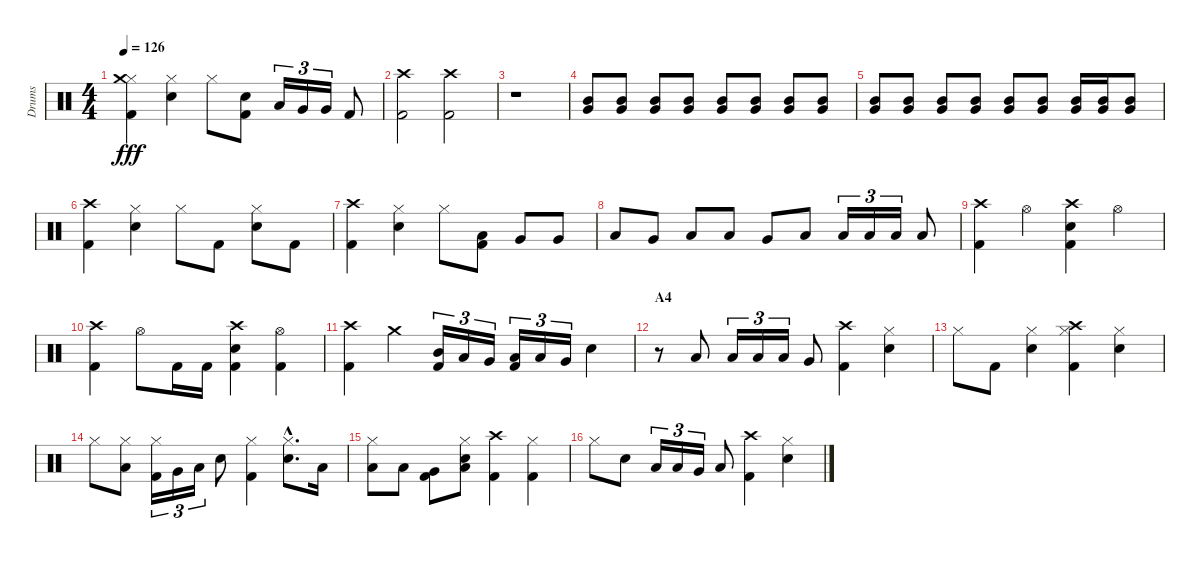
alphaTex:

\track ("Drums" "Drums") {instrument percussion}
\staff {score}
\articulation defaults
\ts (4 4)
\tempo 126
\clef neutral
\ks c
("Hi-Hat (closed)" "Crash medium (hit)" "Kick (hit) 2").4{dy fff} ("Hi-Hat (closed)" "Snare (hit) 2").4 "Hi-Hat (closed)".8 ("Snare (hit) 2" "Kick (hit) 2").8 "Low Tom (hit)".16{tu (3 2)} "Very Low Tom (hit)".16{tu (3 2)} "Very Low Tom (hit)".16{tu (3 2)} "Kick (hit) 2".8 |
("Crash high (hit)" "Kick (hit) 2").2 ("Crash high (hit)" "Kick (hit) 2").2 |
r.1 |
("Mid Tom (hit)" "Very Low Tom (hit)").8 ("Mid Tom (hit)" "Very Low Tom (hit)").8 ("Mid Tom (hit)" "Very Low Tom (hit)").8 ("Mid Tom (hit)" "Very Low Tom (hit)").8 ("Mid Tom (hit)" "Very Low Tom (hit)").8 ("Mid Tom (hit)" "Very Low Tom (hit)").8 ("Mid Tom (hit)" "Very Low Tom (hit)").8 ("Mid Tom (hit)" "Very Low Tom (hit)").8 |
("Mid Tom (hit)" "Very Low Tom (hit)").8 ("Mid Tom (hit)" "Very Low Tom (hit)").8 ("Mid Tom (hit)" "Very Low Tom (hit)").8 ("Mid Tom (hit)" "Very Low Tom (hit)").8 ("Mid Tom (hit)" "Very Low Tom (hit)").8 ("Mid Tom (hit)" "Very Low Tom (hit)").8 ("Mid Tom (hit)" "Very Low Tom (hit)").16 ("Mid Tom (hit)" "Very Low Tom (hit)").16 ("Mid Tom (hit)" "Very Low Tom (hit)").8 |
("Crash high (hit)" "Kick (hit) 2").4 ("Hi-Hat (closed)" "Snare (hit) 2").4 "Hi-Hat (closed)".8 "Kick (hit) 2".8 ("Hi-Hat (closed)" "Snare (hit) 2").8 "Kick (hit) 2".8 |
("Crash high (hit)" "Kick (hit) 2").4 ("Hi-Hat (closed)" "Snare (hit) 2").4 "Hi-Hat (closed)".8 ("Low Tom (hit)" "Kick (hit) 2").8 "Very Low Tom (hit)".8 "Very Low Tom (hit)".8 |
"Low Tom (hit)".8 "Very Low Tom (hit)".8 "Low Floor Tom (hit)".8 "Low Tom (hit)".8 "Very Low Tom (hit)".8 "Low Floor Tom (hit)".8 "Low Tom (hit)".16{tu (3 2)} "Low Tom (hit)".16{tu (3 2)} "Low Tom (hit)".16{tu (3 2)} "Low Floor Tom (hit)".8 |
("Crash high (hit)" "Kick (hit) 2").4 "Hi-Hat (open)".4 ("Crash high (hit)" "Snare (hit) 2" "Kick (hit) 2").4 "Hi-Hat (open)".4 |
("Crash high (hit)" "Kick (hit) 2").4 "Hi-Hat (open)".8 "Kick (hit) 2".16 "Kick (hit) 2".16 ("Crash high (hit)" "Snare (hit) 2" "Kick (hit) 2").4 ("Hi-Hat (open)" "Kick (hit) 2").4 |
("Crash high (hit)" "Kick (hit) 2").4 "Crash medium (hit)".4 ("Mid Tom (hit)" "Kick (hit) 2").16{tu (3 2)} "Low Tom (hit)".16{tu (3 2)} "Very Low Tom (hit)".16{tu (3 2)} ("Low Floor Tom (hit)" "Kick (hit) 2").16{tu (3 2)} "Low Tom (hit)".16{tu (3 2)} "Very Low Tom (hit)".16{tu (3 2)} "Snare (hit) 2".4 |
\section ("" "A4")
r.8 "Low Tom (hit)".8 "Low Tom (hit)".16{tu (3 2)} "Low Tom (hit)".16{tu (3 2)} "Low Tom (hit)".16{tu (3 2)} "Very Low Tom (hit)".8 ("Crash high (hit)" "Kick (hit) 2").4 ("Hi-Hat (closed)" "Snare (hit) 2").4 |
"Hi-Hat (closed)".8 "Kick (hit) 2".8 ("Hi-Hat (closed)" "Snare (hit) 2").4 ("Hi-Hat (closed)" "Crash high (hit)" "Kick (hit) 2").4 ("Hi-Hat (closed)" "Snare (hit) 2").4 |
"Hi-Hat (closed)".8 ("Hi-Hat (closed)" "Low Tom (hit)").8 ("Hi-Hat (closed)" "Kick (hit) 2").16{tu (3 2)} "Very Low Tom (hit)".16{tu (3 2)} "Low Floor Tom (hit)".16{tu (3 2)} "Snare (hit) 2".8 ("Hi-Hat (closed)" "Kick (hit) 2").4 ("Hi-Hat (closed)"{hac} "Snare (hit) 2"{hac}).8{d} "Low Tom (hit)".16 |
("Hi-Hat (closed)" "Low Tom (hit)").8 "Low Tom (hit)".8 ("Very Low Tom (hit)" "Kick (hit) 2").8 ("Hi-Hat (closed)" "Low Floor Tom (hit)" "Snare (hit) 2").8 ("Crash high (hit)" "Kick (hit) 2").4 ("Hi-Hat (closed)" "Kick (hit) 2").4 |
"Hi-Hat (closed)".8 "Snare (hit) 2".8 "Low Tom (hit)".16{tu (3 2)} "Low Tom (hit)".16{tu (3 2)} "Very Low Tom (hit)".16{tu (3 2)} "Low Floor Tom (hit)".8 ("Crash high (hit)" "Kick (hit) 2").4 ("Hi-Hat (closed)" "Snare (hit) 2").4
